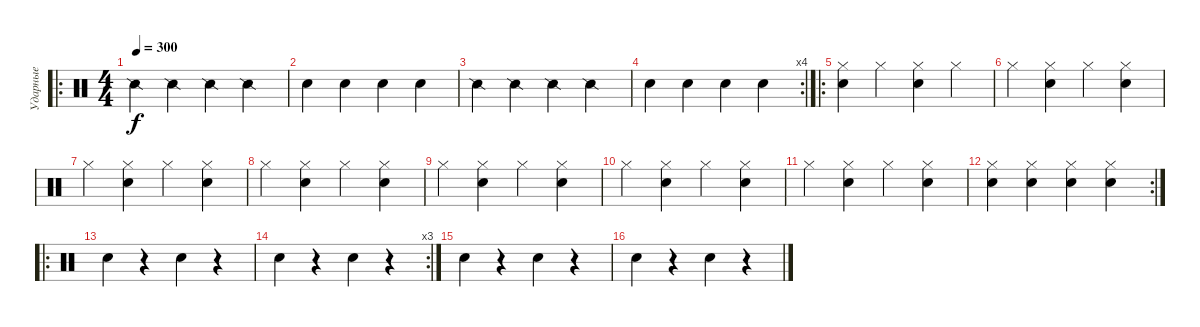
\track ("Ударные" "Ударные") {instrument percussion}
\staff {score}
\articulation defaults
\ro
\ts (4 4)
\tempo 300
\tempo 450
\tempo 300
\clef neutral
\ks c "Snare (side stick) 2".4{dy f} "Snare (side stick) 2".4 "Snare (side stick) 2".4 "Snare (side stick) 2".4
|
"Snare (hit) 2".4 "Snare (hit) 2".4 "Snare (hit) 2".4 "Snare (hit) 2".4 |
"Snare (side stick) 2".4 "Snare (side stick) 2".4 "Snare (side stick) 2".4 "Snare (side stick) 2".4 |
\rc 4 "Snare (hit) 2".4 "Snare (hit) 2".4 "Snare (hit) 2".4 "Snare (hit) 2".4
|
\ro
("Hi-Hat (closed)" "Electric Snare (hit)").4 "Hi-Hat (closed)".4 ("Hi-Hat (closed)" "Electric Snare (hit)").4 "Hi-Hat (closed)".4 |
"Hi-Hat (closed)".4 ("Hi-Hat (closed)" "Electric Snare (hit)").4 "Hi-Hat (closed)".4 ("Hi-Hat (closed)" "Electric Snare (hit)").4 |
"Hi-Hat (closed)".4 ("Hi-Hat (closed)" "Electric Snare (hit)").4 "Hi-Hat (closed)".4 ("Hi-Hat (closed)" "Electric Snare (hit)").4 |
"Hi-Hat (closed)".4 ("Hi-Hat (closed)" "Electric Snare (hit)").4 "Hi-Hat (closed)".4 ("Hi-Hat (closed)" "Electric Snare (hit)").4 |
"Hi-Hat (closed)".4 ("Hi-Hat (closed)" "Electric Snare (hit)").4 "Hi-Hat (closed)".4 ("Hi-Hat (closed)" "Electric Snare (hit)").4 |
"Hi-Hat (closed)".4 ("Hi-Hat (closed)" "Electric Snare (hit)").4 "Hi-Hat (closed)".4 ("Hi-Hat (closed)" "Electric Snare (hit)").4 |
"Hi-Hat (closed)".4 ("Hi-Hat (closed)" "Electric Snare (hit)").4 "Hi-Hat (closed)".4 ("Hi-Hat (closed)" "Electric Snare (hit)").4 |
\rc 2
("Hi-Hat (closed)" "Electric Snare (hit)").4 ("Hi-Hat (closed)" "Electric Snare (hit)").4 ("Hi-Hat (closed)" "Electric Snare (hit)").4 ("Hi-Hat (closed)" "Electric Snare (hit)").4 |
\ro "Snare (hit) 2".4
r.4 "Snare (hit) 2".4 r.4 |
\rc 3 "Snare (hit) 2".4
r.4 "Snare (hit) 2".4 r.4 |
"Snare (hit) 2".4 r.4 "Snare (hit) 2".4 r.4 |
"Snare (hit) 2".4 r.4 "Snare (hit) 2".4 r.4
